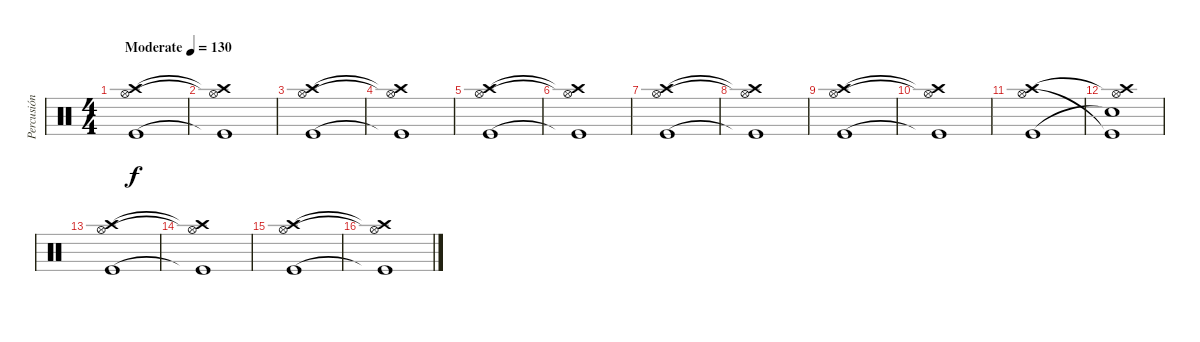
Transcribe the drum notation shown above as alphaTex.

\track ("Percusión" "Percusión") {instrument percussion}
\staff {score}
\articulation defaults
\ts (4 4)
\tempo (130 "Moderate")
\clef neutral
\ks c
("Kick (hit)" "Hi-Hat (open)" "Crash high (hit)").1{dy f} |
("Kick (hit)"{t} "Hi-Hat (open)"{t} "Crash high (hit)"{t}).1 |
("Kick (hit)" "Hi-Hat (open)" "Crash high (hit)").1 |
("Kick (hit)"{t} "Hi-Hat (open)"{t} "Crash high (hit)"{t}).1 |
("Kick (hit)" "Hi-Hat (open)" "Crash high (hit)").1 |
("Kick (hit)"{t} "Hi-Hat (open)"{t} "Crash high (hit)"{t}).1 |
("Kick (hit)" "Hi-Hat (open)" "Crash high (hit)").1 |
("Kick (hit)"{t} "Hi-Hat (open)"{t} "Crash high (hit)"{t}).1 |
("Kick (hit)" "Hi-Hat (open)" "Crash high (hit)").1 |
("Kick (hit)"{t} "Hi-Hat (open)"{t} "Crash high (hit)"{t}).1 |
("Kick (hit)" "Hi-Hat (open)" "Crash high (hit)").1 |
("Snare (hit)"{t} "Kick (hit)"{t} "Hi-Hat (open)"{t} "Crash high (hit)").1 |
("Kick (hit)" "Hi-Hat (open)" "Crash high (hit)").1 |
("Kick (hit)"{t} "Hi-Hat (open)"{t} "Crash high (hit)"{t}).1 |
("Kick (hit)" "Hi-Hat (open)" "Crash high (hit)").1 |
("Kick (hit)"{t} "Hi-Hat (open)"{t} "Crash high (hit)"{t}).1
